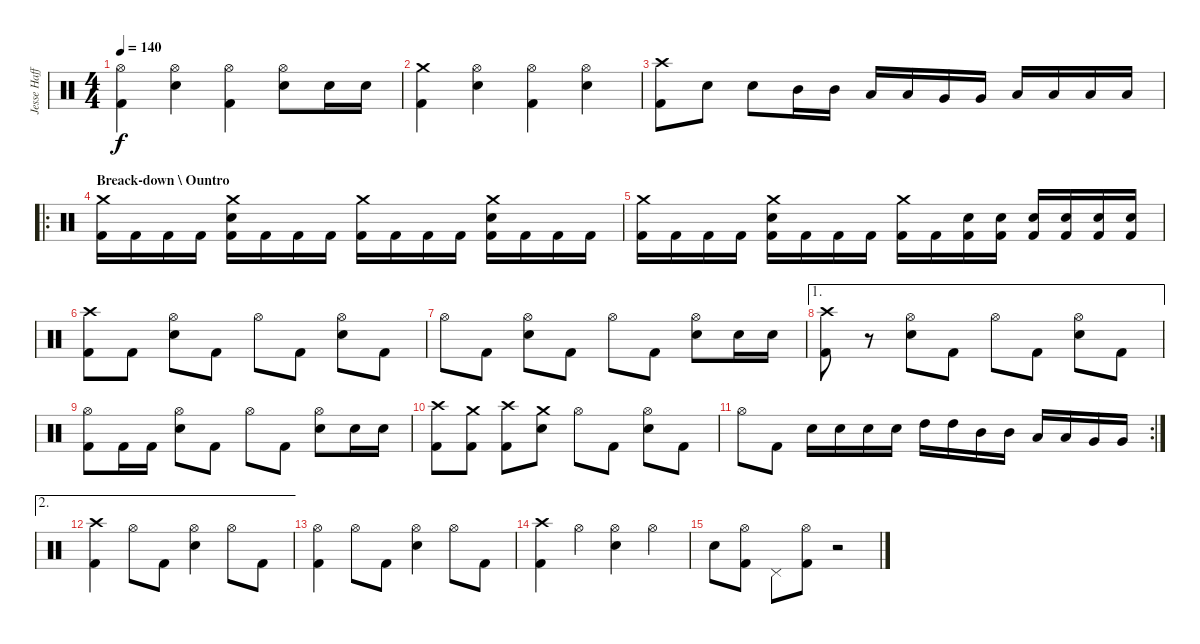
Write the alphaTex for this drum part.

\track ("Jesse Haff" "Jesse Haff") {instrument percussion}
\staff {score}
\articulation defaults
\ts (4 4)
\tempo 140
\clef neutral
\ks c
("Hi-Hat (open)" "Kick (hit) 2").4{dy f} ("Hi-Hat (open)" "Electric Snare (hit)").4 ("Hi-Hat (open)" "Kick (hit) 2").4 ("Hi-Hat (open)" "Electric Snare (hit)").8 "Electric Snare (hit)".16 "Electric Snare (hit)".16 |
("Crash medium (hit)" "Kick (hit) 2").4 ("Hi-Hat (open)" "Electric Snare (hit)").4 ("Hi-Hat (open)" "Kick (hit) 2").4 ("Hi-Hat (open)" "Electric Snare (hit)").4 |
("Crash high (hit)" "Kick (hit) 2").8 "Electric Snare (hit)".8 "Electric Snare (hit)".8 "Mid Tom (hit)".16 "Mid Tom (hit)".16 "Low Tom (hit)".16 "Low Tom (hit)".16 "Very Low Tom (hit)".16 "Very Low Tom (hit)".16 "Low Floor Tom (hit)".16 "Low Floor Tom (hit)".16 "Low Floor Tom (hit)".16 "Low Floor Tom (hit)".16 |
\ro
\section ("" "Breack-down \\ Ountro")
("Crash medium (hit)" "Kick (hit) 2").16 "Kick (hit) 2".16 "Kick (hit) 2".16 "Kick (hit) 2".16 ("Crash medium (hit)" "Electric Snare (hit)" "Kick (hit) 2").16 "Kick (hit) 2".16 "Kick (hit) 2".16 "Kick (hit) 2".16 ("Crash medium (hit)" "Kick (hit) 2").16 "Kick (hit) 2".16 "Kick (hit) 2".16 "Kick (hit) 2".16 ("Crash medium (hit)" "Electric Snare (hit)" "Kick (hit) 2").16 "Kick (hit) 2".16 "Kick (hit) 2".16 "Kick (hit) 2".16 |
("Crash medium (hit)" "Kick (hit) 2").16 "Kick (hit) 2".16 "Kick (hit) 2".16 "Kick (hit) 2".16 ("Crash medium (hit)" "Electric Snare (hit)" "Kick (hit) 2").16 "Kick (hit) 2".16 "Kick (hit) 2".16 "Kick (hit) 2".16 ("Crash medium (hit)" "Kick (hit) 2").16 "Kick (hit) 2".16 ("Electric Snare (hit)" "Kick (hit) 2").16 ("Electric Snare (hit)" "Kick (hit) 2").16 ("Electric Snare (hit)" "Kick (hit) 2").16 ("Electric Snare (hit)" "Kick (hit) 2").16 ("Electric Snare (hit)" "Kick (hit) 2").16 ("Electric Snare (hit)" "Kick (hit) 2").16 |
("Crash high (hit)" "Kick (hit) 2").8 "Kick (hit) 2".8 ("Hi-Hat (open)" "Electric Snare (hit)").8 "Kick (hit) 2".8 "Hi-Hat (open)".8 "Kick (hit) 2".8 ("Hi-Hat (open)" "Electric Snare (hit)").8 "Kick (hit) 2".8 |
"Hi-Hat (open)".8 "Kick (hit) 2".8 ("Hi-Hat (open)" "Electric Snare (hit)").8 "Kick (hit) 2".8 "Hi-Hat (open)".8 "Kick (hit) 2".8 ("Hi-Hat (open)" "Electric Snare (hit)").8 "Electric Snare (hit)".16 "Electric Snare (hit)".16 |
\ae 1
("Crash high (hit)" "Kick (hit) 2").8 r.8 ("Hi-Hat (open)" "Electric Snare (hit)").8 "Kick (hit) 2".8 "Hi-Hat (open)".8 "Kick (hit) 2".8 ("Hi-Hat (open)" "Electric Snare (hit)").8 "Kick (hit) 2".8 |
("Hi-Hat (open)" "Kick (hit) 2").8 "Kick (hit) 2".16 "Kick (hit) 2".16 ("Hi-Hat (open)" "Electric Snare (hit)").8 "Kick (hit) 2".8 "Hi-Hat (open)".8 "Kick (hit) 2".8 ("Hi-Hat (open)" "Electric Snare (hit)").8 "Electric Snare (hit)".16 "Electric Snare (hit)".16 |
("Crash high (hit)" "Kick (hit) 2").8 ("Crash medium (hit)" "Kick (hit) 2").8 ("Crash high (hit)" "Kick (hit) 2").8 ("Crash medium (hit)" "Electric Snare (hit)").8 "Hi-Hat (open)".8 "Kick (hit) 2".8 ("Hi-Hat (open)" "Electric Snare (hit)").8 "Kick (hit) 2".8 |
\rc 2 "Hi-Hat (open)".8 "Kick (hit) 2".8 "Electric Snare (hit)".16 "Electric Snare (hit)".16 "Electric Snare (hit)".16 "Electric Snare (hit)".16 "High Tom (hit)".16 "High Tom (hit)".16 "Mid Tom (hit)".16 "Mid Tom (hit)".16 "Low Tom (hit)".16 "Low Tom (hit)".16 "Very Low Tom (hit)".16 "Very Low Tom (hit)".16
|
\ae 2
("Crash high (hit)" "Kick (hit) 2").4 "Hi-Hat (open)".8 "Kick (hit) 2".8 ("Hi-Hat (open)" "Electric Snare (hit)").4 "Hi-Hat (open)".8 "Kick (hit) 2".8 |
("Hi-Hat (open)" "Kick (hit) 2").4 "Hi-Hat (open)".8 "Kick (hit) 2".8 ("Hi-Hat (open)" "Electric Snare (hit)").4 "Hi-Hat (open)".8 "Kick (hit) 2".8 |
("Crash high (hit)" "Kick (hit) 2").4 "Hi-Hat (open)".4 ("Hi-Hat (open)" "Electric Snare (hit)").4 "Hi-Hat (open)".4 |
"Electric Snare (hit)".8 ("Hi-Hat (open)" "Kick (hit) 2").8 "Pedal Hi-Hat (hit)".8 ("Hi-Hat (open)" "Kick (hit) 2").8 r.2
